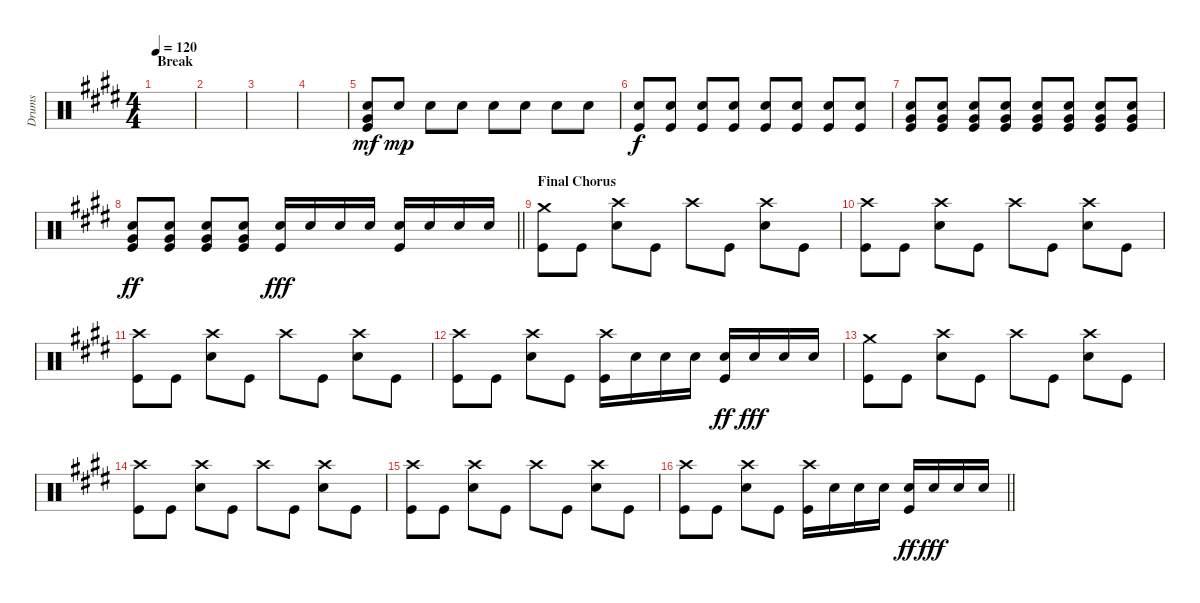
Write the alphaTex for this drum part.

\track ("Drums" "Drums") {instrument percussion}
\staff {score}
\articulation defaults
\ts (4 4)
\section ("" "Break")
\tempo 120
\clef neutral
\ks e
|
|
|
|
("Very Low Tom (hit)" "Snare (hit) 2" "Kick (hit)").8{dy mf} "Snare (hit) 2".8{dy mp} "Snare (hit) 2".8 "Snare (hit) 2".8 "Snare (hit) 2".8 "Snare (hit) 2".8 "Snare (hit) 2".8 "Snare (hit) 2".8 |
("Snare (hit) 2" "Kick (hit)").8{dy f} ("Snare (hit) 2" "Kick (hit)").8 ("Snare (hit) 2" "Kick (hit)").8 ("Snare (hit) 2" "Kick (hit)").8 ("Snare (hit) 2" "Kick (hit)").8 ("Snare (hit) 2" "Kick (hit)").8 ("Snare (hit) 2" "Kick (hit)").8 ("Snare (hit) 2" "Kick (hit)").8 |
("Very Low Tom (hit)" "Snare (hit) 2" "Kick (hit)").8 ("Very Low Tom (hit)" "Snare (hit) 2" "Kick (hit)").8 ("Very Low Tom (hit)" "Snare (hit) 2" "Kick (hit)").8 ("Very Low Tom (hit)" "Snare (hit) 2" "Kick (hit)").8 ("Very Low Tom (hit)" "Snare (hit) 2" "Kick (hit)").8 ("Very Low Tom (hit)" "Snare (hit) 2" "Kick (hit)").8 ("Very Low Tom (hit)" "Snare (hit) 2" "Kick (hit)").8 ("Very Low Tom (hit)" "Snare (hit) 2" "Kick (hit)").8 |
\barLineRight lightlight
("Very Low Tom (hit)" "Snare (hit) 2" "Kick (hit)").8{dy ff} ("Very Low Tom (hit)" "Snare (hit) 2" "Kick (hit)").8 ("Very Low Tom (hit)" "Snare (hit) 2" "Kick (hit)").8 ("Very Low Tom (hit)" "Snare (hit) 2" "Kick (hit)").8 ("Snare (hit) 2" "Kick (hit)").16{dy fff} "Snare (hit) 2".16 "Snare (hit) 2".16 "Snare (hit) 2".16 ("Snare (hit) 2" "Kick (hit)").16 "Snare (hit) 2".16 "Snare (hit) 2".16 "Snare (hit) 2".16 |
\section ("" "Final Chorus")
("Crash medium (hit)" "Kick (hit)").8 "Kick (hit)".8 ("Crash high (hit)" "Snare (hit) 2").8 "Kick (hit)".8 "Crash high (hit)".8 "Kick (hit)".8 ("Crash high (hit)" "Snare (hit) 2").8 "Kick (hit)".8 |
("Crash high (hit)" "Kick (hit)").8 "Kick (hit)".8 ("Crash high (hit)" "Snare (hit) 2").8 "Kick (hit)".8 "Crash high (hit)".8 "Kick (hit)".8 ("Crash high (hit)" "Snare (hit) 2").8 "Kick (hit)".8 |
("Crash high (hit)" "Kick (hit)").8 "Kick (hit)".8 ("Crash high (hit)" "Snare (hit) 2").8 "Kick (hit)".8 "Crash high (hit)".8 "Kick (hit)".8 ("Crash high (hit)" "Snare (hit) 2").8 "Kick (hit)".8 |
("Crash high (hit)" "Kick (hit)").8 "Kick (hit)".8 ("Crash high (hit)" "Snare (hit) 2").8 "Kick (hit)".8 ("Crash high (hit)" "Kick (hit)").16 "Snare (hit) 2".16 "Snare (hit) 2".16 "Snare (hit) 2".16 ("Snare (hit) 2" "Kick (hit)").16{dy ff} "Snare (hit) 2".16{dy fff} "Snare (hit) 2".16 "Snare (hit) 2".16 |
("Crash medium (hit)" "Kick (hit)").8 "Kick (hit)".8 ("Crash high (hit)" "Snare (hit) 2").8 "Kick (hit)".8 "Crash high (hit)".8 "Kick (hit)".8 ("Crash high (hit)" "Snare (hit) 2").8 "Kick (hit)".8 |
("Crash high (hit)" "Kick (hit)").8 "Kick (hit)".8 ("Crash high (hit)" "Snare (hit) 2").8 "Kick (hit)".8 "Crash high (hit)".8 "Kick (hit)".8 ("Crash high (hit)" "Snare (hit) 2").8 "Kick (hit)".8 |
("Crash high (hit)" "Kick (hit)").8 "Kick (hit)".8 ("Crash high (hit)" "Snare (hit) 2").8 "Kick (hit)".8 "Crash high (hit)".8 "Kick (hit)".8 ("Crash high (hit)" "Snare (hit) 2").8 "Kick (hit)".8 |
\barLineRight lightlight
("Crash high (hit)" "Kick (hit)").8 "Kick (hit)".8 ("Crash high (hit)" "Snare (hit) 2").8 "Kick (hit)".8 ("Crash high (hit)" "Kick (hit)").16 "Snare (hit) 2".16 "Snare (hit) 2".16 "Snare (hit) 2".16 ("Snare (hit) 2" "Kick (hit)").16{dy ff} "Snare (hit) 2".16{dy fff} "Snare (hit) 2".16 "Snare (hit) 2".16
